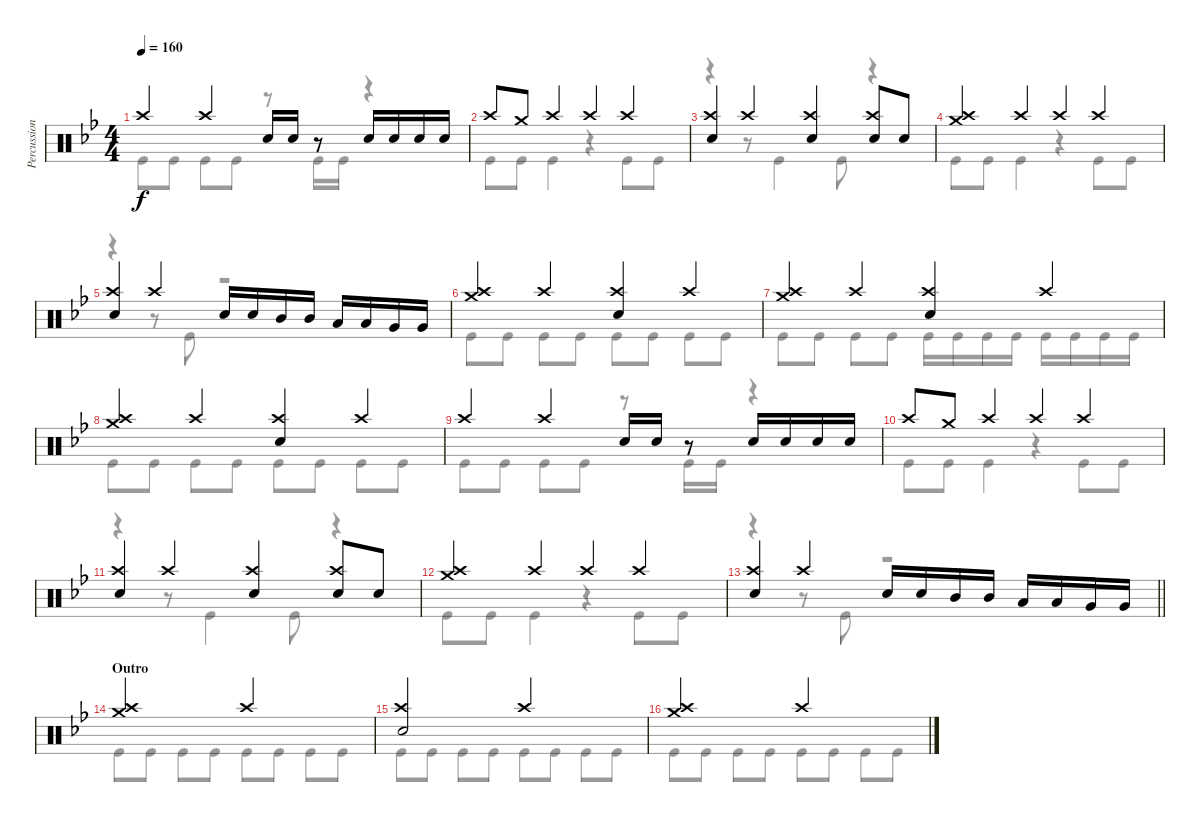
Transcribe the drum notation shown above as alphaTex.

\track ("Percussion" "Percussion") {instrument percussion}
\staff {score}
\articulation defaults
\voice
\ts (4 4)
\tempo 160
\clef neutral
\ks gminor "Crash high (hit)".4{dy f} "Crash high (hit)".4 "Electric Snare (hit)".16 "Electric Snare (hit)".16
r.8 "Electric Snare (hit)".16 "Electric Snare (hit)".16 "Electric Snare (hit)".16 "Electric Snare (hit)".16 |
"Crash high (hit)".8 "Crash medium (hit)".8 "Crash high (hit)".4 "Crash high (hit)".4 "Crash high (hit)".4 |
("Crash high (hit)" "Electric Snare (hit)").4 "Crash high (hit)".4 ("Crash high (hit)" "Electric Snare (hit)").4 ("Crash high (hit)" "Electric Snare (hit)").8 "Electric Snare (hit)".8 |
("Crash medium (hit)" "Crash high (hit)").4 "Crash high (hit)".4 "Crash high (hit)".4 "Crash high (hit)".4 |
("Crash high (hit)" "Electric Snare (hit)").4 "Crash high (hit)".4 "Electric Snare (hit)".16 "Electric Snare (hit)".16 "Mid Tom (hit)".16 "Mid Tom (hit)".16 "Low Tom (hit)".16 "Low Tom (hit)".16 "Very Low Tom (hit)".16 "Very Low Tom (hit)".16 |
("Crash medium (hit)" "Crash high (hit)").4 "Crash high (hit)".4 ("Crash high (hit)" "Electric Snare (hit)").4 "Crash high (hit)".4 |
("Crash medium (hit)" "Crash high (hit)").4 "Crash high (hit)".4 ("Crash high (hit)" "Electric Snare (hit)").4 "Crash high (hit)".4 |
("Crash medium (hit)" "Crash high (hit)").4 "Crash high (hit)".4 ("Crash high (hit)" "Electric Snare (hit)").4 "Crash high (hit)".4 |
"Crash high (hit)".4 "Crash high (hit)".4 "Electric Snare (hit)".16 "Electric Snare (hit)".16 r.8 "Electric Snare (hit)".16 "Electric Snare (hit)".16 "Electric Snare (hit)".16 "Electric Snare (hit)".16 |
"Crash high (hit)".8 "Crash medium (hit)".8 "Crash high (hit)".4 "Crash high (hit)".4 "Crash high (hit)".4 |
("Crash high (hit)" "Electric Snare (hit)").4 "Crash high (hit)".4 ("Crash high (hit)" "Electric Snare (hit)").4 ("Crash high (hit)" "Electric Snare (hit)").8 "Electric Snare (hit)".8 |
("Crash medium (hit)" "Crash high (hit)").4 "Crash high (hit)".4 "Crash high (hit)".4 "Crash high (hit)".4 |
\barLineRight lightlight
("Crash high (hit)" "Electric Snare (hit)").4 "Crash high (hit)".4 "Electric Snare (hit)".16 "Electric Snare (hit)".16 "Mid Tom (hit)".16 "Mid Tom (hit)".16 "Low Tom (hit)".16 "Low Tom (hit)".16 "Very Low Tom (hit)".16 "Very Low Tom (hit)".16 |
\section ("" "Outro")
("Crash medium (hit)" "Crash high (hit)").2 "Crash high (hit)".2 |
("Crash high (hit)" "Electric Snare (hit)").2 "Crash high (hit)".2 |
("Crash medium (hit)" "Crash high (hit)").2 "Crash high (hit)".2
\voice
\clef neutral
\ottava regular
\simile none
\ks gminor "Kick (hit)".8{dy f} "Kick (hit)".8 "Kick (hit)".8 "Kick (hit)".8
r.8 "Kick (hit)".16 "Kick (hit)".16 r.4 |
"Kick (hit)".8 "Kick (hit)".8 "Kick (hit)".4 r.4 "Kick (hit)".8 "Kick (hit)".8 |
r.4 r.8 "Kick (hit)".4 "Kick (hit)".8 r.4 |
"Kick (hit)".8 "Kick (hit)".8 "Kick (hit)".4 r.4 "Kick (hit)".8 "Kick (hit)".8 |
r.4 r.8 "Kick (hit)".8 r.2 |
"Kick (hit)".8 "Kick (hit)".8 "Kick (hit)".8 "Kick (hit)".8 "Kick (hit)".8 "Kick (hit)".8 "Kick (hit)".8 "Kick (hit)".8 |
"Kick (hit)".8 "Kick (hit)".8 "Kick (hit)".8 "Kick (hit)".8 "Kick (hit)".16 "Kick (hit)".16 "Kick (hit)".16 "Kick (hit)".16 "Kick (hit)".16 "Kick (hit)".16 "Kick (hit)".16 "Kick (hit)".16 |
"Kick (hit)".8 "Kick (hit)".8 "Kick (hit)".8 "Kick (hit)".8 "Kick (hit)".8 "Kick (hit)".8 "Kick (hit)".8 "Kick (hit)".8 |
"Kick (hit)".8 "Kick (hit)".8 "Kick (hit)".8 "Kick (hit)".8 r.8 "Kick (hit)".16 "Kick (hit)".16 r.4 |
"Kick (hit)".8 "Kick (hit)".8 "Kick (hit)".4 r.4 "Kick (hit)".8 "Kick (hit)".8 |
r.4 r.8 "Kick (hit)".4 "Kick (hit)".8 r.4 |
"Kick (hit)".8 "Kick (hit)".8 "Kick (hit)".4 r.4 "Kick (hit)".8 "Kick (hit)".8 |
\barLineRight lightlight
r.4 r.8 "Kick (hit)".8 r.2 |
"Kick (hit)".8 "Kick (hit)".8 "Kick (hit)".8 "Kick (hit)".8 "Kick (hit)".8 "Kick (hit)".8 "Kick (hit)".8 "Kick (hit)".8 |
"Kick (hit)".8 "Kick (hit)".8 "Kick (hit)".8 "Kick (hit)".8 "Kick (hit)".8 "Kick (hit)".8 "Kick (hit)".8 "Kick (hit)".8 |
"Kick (hit)".8 "Kick (hit)".8 "Kick (hit)".8 "Kick (hit)".8 "Kick (hit)".8 "Kick (hit)".8 "Kick (hit)".8 "Kick (hit)".8
